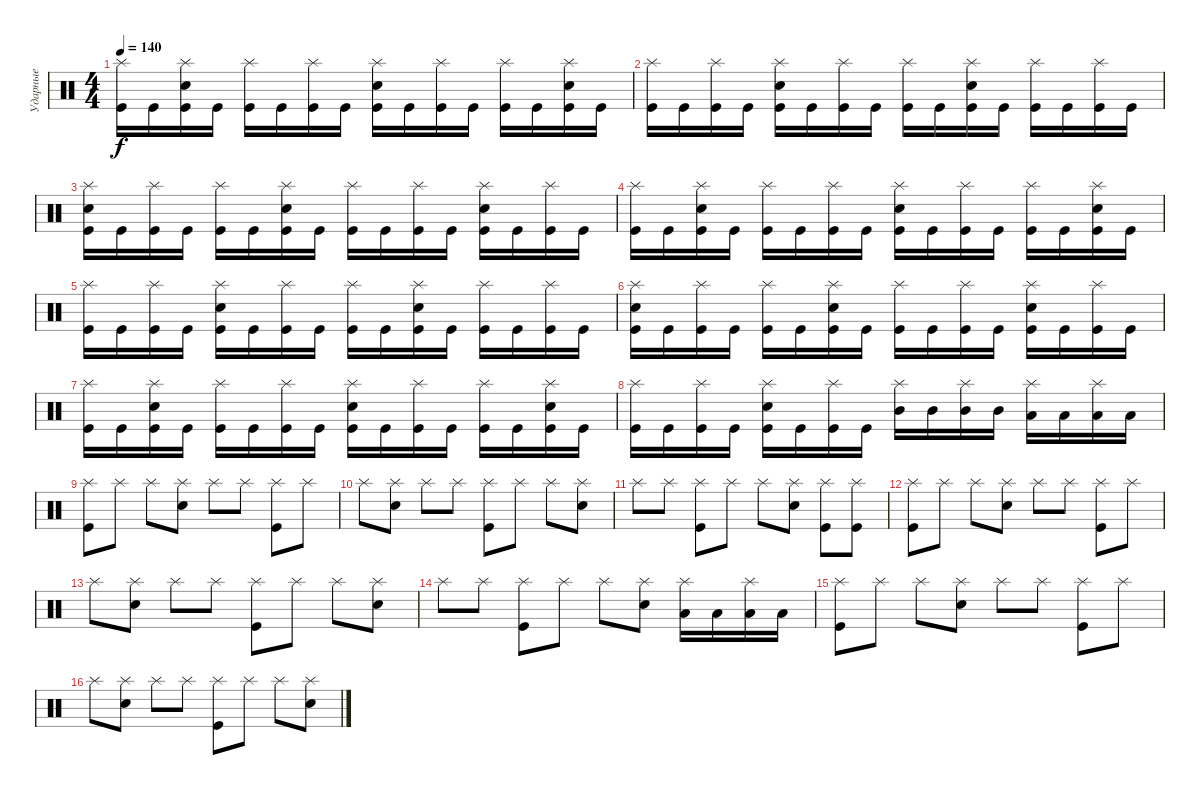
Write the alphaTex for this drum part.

\track ("Ударные" "Ударные") {instrument percussion}
\staff {score}
\articulation defaults
\ts (4 4)
\tempo 140
\clef neutral
\ks c
("Kick (hit)" "Splash (hit)").16{dy f} "Kick (hit)".16 ("Kick (hit)" "Snare (hit) 2" "Splash (hit)").16 "Kick (hit)".16 ("Kick (hit)" "Splash (hit)").16 "Kick (hit)".16 ("Kick (hit)" "Splash (hit)").16 "Kick (hit)".16 ("Kick (hit)" "Snare (hit) 2" "Splash (hit)").16 "Kick (hit)".16 ("Kick (hit)" "Splash (hit)").16 "Kick (hit)".16 ("Kick (hit)" "Splash (hit)").16 "Kick (hit)".16 ("Kick (hit)" "Snare (hit) 2" "Splash (hit)").16 "Kick (hit)".16 |
("Kick (hit)" "Splash (hit)").16 "Kick (hit)".16 ("Kick (hit)" "Splash (hit)").16 "Kick (hit)".16 ("Kick (hit)" "Snare (hit) 2" "Splash (hit)").16 "Kick (hit)".16 ("Kick (hit)" "Splash (hit)").16 "Kick (hit)".16 ("Kick (hit)" "Splash (hit)").16 "Kick (hit)".16 ("Kick (hit)" "Snare (hit) 2" "Splash (hit)").16 "Kick (hit)".16 ("Kick (hit)" "Splash (hit)").16 "Kick (hit)".16 ("Kick (hit)" "Splash (hit)").16 "Kick (hit)".16 |
("Kick (hit)" "Snare (hit) 2" "Splash (hit)").16 "Kick (hit)".16 ("Kick (hit)" "Splash (hit)").16 "Kick (hit)".16 ("Kick (hit)" "Splash (hit)").16 "Kick (hit)".16 ("Kick (hit)" "Snare (hit) 2" "Splash (hit)").16 "Kick (hit)".16 ("Kick (hit)" "Splash (hit)").16 "Kick (hit)".16 ("Kick (hit)" "Splash (hit)").16 "Kick (hit)".16 ("Kick (hit)" "Snare (hit) 2" "Splash (hit)").16 "Kick (hit)".16 ("Kick (hit)" "Splash (hit)").16 "Kick (hit)".16 |
("Kick (hit)" "Splash (hit)").16 "Kick (hit)".16 ("Kick (hit)" "Snare (hit) 2" "Splash (hit)").16 "Kick (hit)".16 ("Kick (hit)" "Splash (hit)").16 "Kick (hit)".16 ("Kick (hit)" "Splash (hit)").16 "Kick (hit)".16 ("Kick (hit)" "Snare (hit) 2" "Splash (hit)").16 "Kick (hit)".16 ("Kick (hit)" "Splash (hit)").16 "Kick (hit)".16 ("Kick (hit)" "Splash (hit)").16 "Kick (hit)".16 ("Kick (hit)" "Snare (hit) 2" "Splash (hit)").16 "Kick (hit)".16 |
("Kick (hit)" "Splash (hit)").16 "Kick (hit)".16 ("Kick (hit)" "Splash (hit)").16 "Kick (hit)".16 ("Kick (hit)" "Snare (hit) 2" "Splash (hit)").16 "Kick (hit)".16 ("Kick (hit)" "Splash (hit)").16 "Kick (hit)".16 ("Kick (hit)" "Splash (hit)").16 "Kick (hit)".16 ("Kick (hit)" "Snare (hit) 2" "Splash (hit)").16 "Kick (hit)".16 ("Kick (hit)" "Splash (hit)").16 "Kick (hit)".16 ("Kick (hit)" "Splash (hit)").16 "Kick (hit)".16 |
("Kick (hit)" "Snare (hit) 2" "Splash (hit)").16 "Kick (hit)".16 ("Kick (hit)" "Splash (hit)").16 "Kick (hit)".16 ("Kick (hit)" "Splash (hit)").16 "Kick (hit)".16 ("Kick (hit)" "Snare (hit) 2" "Splash (hit)").16 "Kick (hit)".16 ("Kick (hit)" "Splash (hit)").16 "Kick (hit)".16 ("Kick (hit)" "Splash (hit)").16 "Kick (hit)".16 ("Kick (hit)" "Snare (hit) 2" "Splash (hit)").16 "Kick (hit)".16 ("Kick (hit)" "Splash (hit)").16 "Kick (hit)".16 |
("Kick (hit)" "Splash (hit)").16 "Kick (hit)".16 ("Kick (hit)" "Snare (hit) 2" "Splash (hit)").16 "Kick (hit)".16 ("Kick (hit)" "Splash (hit)").16 "Kick (hit)".16 ("Kick (hit)" "Splash (hit)").16 "Kick (hit)".16 ("Kick (hit)" "Snare (hit) 2" "Splash (hit)").16 "Kick (hit)".16 ("Kick (hit)" "Splash (hit)").16 "Kick (hit)".16 ("Kick (hit)" "Splash (hit)").16 "Kick (hit)".16 ("Kick (hit)" "Snare (hit) 2" "Splash (hit)").16 "Kick (hit)".16 |
("Kick (hit)" "Splash (hit)").16 "Kick (hit)".16 ("Kick (hit)" "Splash (hit)").16 "Kick (hit)".16 ("Kick (hit)" "Snare (hit) 2" "Splash (hit)").16 "Kick (hit)".16 ("Kick (hit)" "Splash (hit)").16 "Kick (hit)".16 ("Mid Tom (hit)" "Splash (hit)").16 "Mid Tom (hit)".16 ("Mid Tom (hit)" "Splash (hit)").16 "Mid Tom (hit)".16 ("Low Tom (hit)" "Splash (hit)").16 "Low Tom (hit)".16 ("Low Tom (hit)" "Splash (hit)").16 "Low Tom (hit)".16 |
("Kick (hit)" "Splash (hit)").8 "Splash (hit)".8 "Splash (hit)".8 ("Snare (hit) 2" "Splash (hit)").8 "Splash (hit)".8 "Splash (hit)".8 ("Kick (hit)" "Splash (hit)").8 "Splash (hit)".8 |
"Splash (hit)".8 ("Snare (hit) 2" "Splash (hit)").8 "Splash (hit)".8 "Splash (hit)".8 ("Kick (hit)" "Splash (hit)").8 "Splash (hit)".8 "Splash (hit)".8 ("Snare (hit) 2" "Splash (hit)").8 |
"Splash (hit)".8 "Splash (hit)".8 ("Kick (hit)" "Splash (hit)").8 "Splash (hit)".8 "Splash (hit)".8 ("Snare (hit) 2" "Splash (hit)").8 ("Kick (hit)" "Splash (hit)").8 ("Kick (hit)" "Splash (hit)").8 |
("Kick (hit)" "Splash (hit)").8 "Splash (hit)".8 "Splash (hit)".8 ("Snare (hit) 2" "Splash (hit)").8 "Splash (hit)".8 "Splash (hit)".8 ("Kick (hit)" "Splash (hit)").8 "Splash (hit)".8 |
"Splash (hit)".8 ("Snare (hit) 2" "Splash (hit)").8 "Splash (hit)".8 "Splash (hit)".8 ("Kick (hit)" "Splash (hit)").8 "Splash (hit)".8 "Splash (hit)".8 ("Snare (hit) 2" "Splash (hit)").8 |
"Splash (hit)".8 "Splash (hit)".8 ("Kick (hit)" "Splash (hit)").8 "Splash (hit)".8 "Splash (hit)".8 ("Snare (hit) 2" "Splash (hit)").8 ("Low Tom (hit)" "Splash (hit)").16 "Low Tom (hit)".16 ("Low Tom (hit)" "Splash (hit)").16 "Low Tom (hit)".16 |
("Kick (hit)" "Splash (hit)").8 "Splash (hit)".8 "Splash (hit)".8 ("Snare (hit) 2" "Splash (hit)").8 "Splash (hit)".8 "Splash (hit)".8 ("Kick (hit)" "Splash (hit)").8 "Splash (hit)".8 |
"Splash (hit)".8 ("Snare (hit) 2" "Splash (hit)").8 "Splash (hit)".8 "Splash (hit)".8 ("Kick (hit)" "Splash (hit)").8 "Splash (hit)".8 "Splash (hit)".8 ("Snare (hit) 2" "Splash (hit)").8
